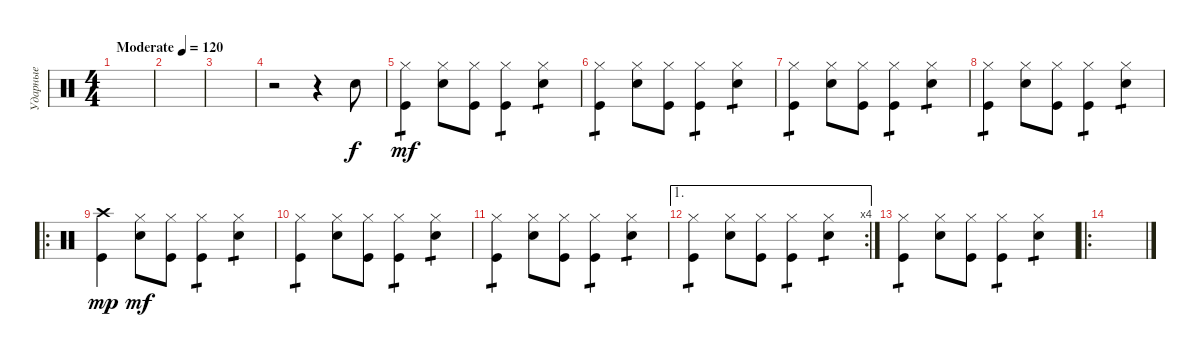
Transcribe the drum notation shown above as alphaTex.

\track ("Ударные" "Ударные") {instrument percussion}
\staff {score}
\articulation defaults
\ts (4 4)
\tempo (120 "Moderate")
\clef neutral
\ks c
|
|
|
r.2 r.4 "Snare (hit) 2".8 |
("Kick (hit)" "Hi-Hat (closed)").4{tp 1 dy mf} ("Snare (hit) 2" "Hi-Hat (closed)").8 ("Kick (hit)" "Hi-Hat (closed)").8 ("Kick (hit)" "Hi-Hat (closed)").4{tp 1} ("Snare (hit) 2" "Hi-Hat (closed)").4{tp 1} |
("Kick (hit)" "Hi-Hat (closed)").4{tp 1} ("Snare (hit) 2" "Hi-Hat (closed)").8 ("Kick (hit)" "Hi-Hat (closed)").8 ("Kick (hit)" "Hi-Hat (closed)").4{tp 1} ("Snare (hit) 2" "Hi-Hat (closed)").4{tp 1} |
("Kick (hit)" "Hi-Hat (closed)").4{tp 1} ("Snare (hit) 2" "Hi-Hat (closed)").8 ("Kick (hit)" "Hi-Hat (closed)").8 ("Kick (hit)" "Hi-Hat (closed)").4{tp 1} ("Snare (hit) 2" "Hi-Hat (closed)").4{tp 1} |
("Kick (hit)" "Hi-Hat (closed)").4{tp 1} ("Snare (hit) 2" "Hi-Hat (closed)").8 ("Kick (hit)" "Hi-Hat (closed)").8 ("Kick (hit)" "Hi-Hat (closed)").4{tp 1} ("Snare (hit) 2" "Hi-Hat (closed)").4{tp 1} |
\ro
("Kick (hit)" "Crash high (hit)").4{dy mp} ("Snare (hit) 2" "Hi-Hat (closed)").8{dy mf} ("Kick (hit)" "Hi-Hat (closed)").8 ("Kick (hit)" "Hi-Hat (closed)").4{tp 1} ("Snare (hit) 2" "Hi-Hat (closed)").4{tp 1} |
("Kick (hit)" "Hi-Hat (closed)").4{tp 1} ("Snare (hit) 2" "Hi-Hat (closed)").8 ("Kick (hit)" "Hi-Hat (closed)").8 ("Kick (hit)" "Hi-Hat (closed)").4{tp 1} ("Snare (hit) 2" "Hi-Hat (closed)").4{tp 1} |
("Kick (hit)" "Hi-Hat (closed)").4{tp 1} ("Snare (hit) 2" "Hi-Hat (closed)").8 ("Kick (hit)" "Hi-Hat (closed)").8 ("Kick (hit)" "Hi-Hat (closed)").4{tp 1} ("Snare (hit) 2" "Hi-Hat (closed)").4{tp 1} |
\ae 1
\rc 4
("Kick (hit)" "Hi-Hat (closed)").4{tp 1} ("Snare (hit) 2" "Hi-Hat (closed)").8 ("Kick (hit)" "Hi-Hat (closed)").8 ("Kick (hit)" "Hi-Hat (closed)").4{tp 1} ("Snare (hit) 2" "Hi-Hat (closed)").4{tp 1} |
("Kick (hit)" "Hi-Hat (closed)").4{tp 1} ("Snare (hit) 2" "Hi-Hat (closed)").8 ("Kick (hit)" "Hi-Hat (closed)").8 ("Kick (hit)" "Hi-Hat (closed)").4{tp 1} ("Snare (hit) 2" "Hi-Hat (closed)").4{tp 1} |
\ro
